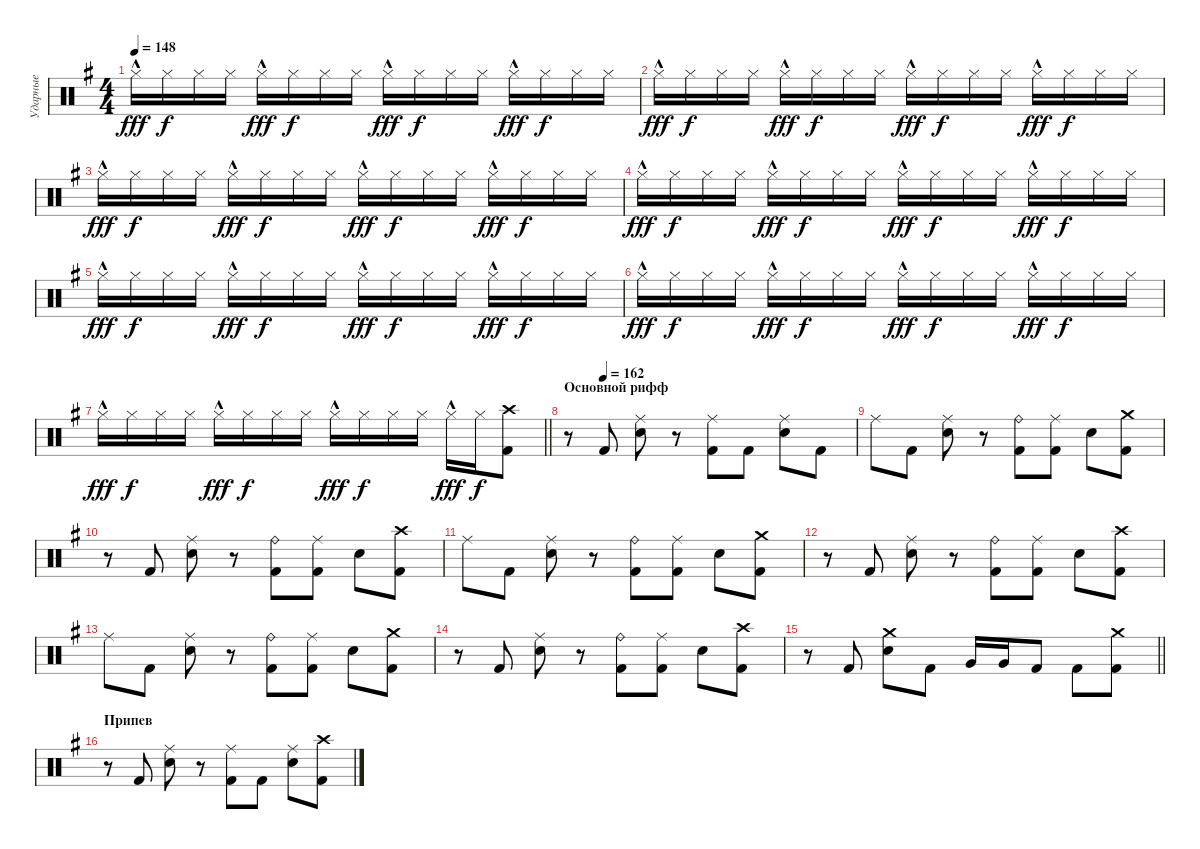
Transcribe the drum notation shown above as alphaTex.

\track ("Ударные" "Ударные") {instrument percussion}
\staff {score}
\articulation defaults
\ts (4 4)
\tempo 148
\clef neutral
\ks eminor "Hi-Hat (closed)"{hac}.16{dy fff} "Hi-Hat (closed)".16{dy f} "Hi-Hat (closed)".16 "Hi-Hat (closed)".16 "Hi-Hat (closed)"{hac}.16{dy fff} "Hi-Hat (closed)".16{dy f} "Hi-Hat (closed)".16 "Hi-Hat (closed)".16 "Hi-Hat (closed)"{hac}.16{dy fff} "Hi-Hat (closed)".16{dy f} "Hi-Hat (closed)".16 "Hi-Hat (closed)".16 "Hi-Hat (closed)"{hac}.16{dy fff} "Hi-Hat (closed)".16{dy f} "Hi-Hat (closed)".16 "Hi-Hat (closed)".16
|
"Hi-Hat (closed)"{hac}.16{dy fff} "Hi-Hat (closed)".16{dy f} "Hi-Hat (closed)".16 "Hi-Hat (closed)".16 "Hi-Hat (closed)"{hac}.16{dy fff} "Hi-Hat (closed)".16{dy f} "Hi-Hat (closed)".16 "Hi-Hat (closed)".16 "Hi-Hat (closed)"{hac}.16{dy fff} "Hi-Hat (closed)".16{dy f} "Hi-Hat (closed)".16 "Hi-Hat (closed)".16 "Hi-Hat (closed)"{hac}.16{dy fff} "Hi-Hat (closed)".16{dy f} "Hi-Hat (closed)".16 "Hi-Hat (closed)".16 |
"Hi-Hat (closed)"{hac}.16{dy fff} "Hi-Hat (closed)".16{dy f} "Hi-Hat (closed)".16 "Hi-Hat (closed)".16 "Hi-Hat (closed)"{hac}.16{dy fff} "Hi-Hat (closed)".16{dy f} "Hi-Hat (closed)".16 "Hi-Hat (closed)".16 "Hi-Hat (closed)"{hac}.16{dy fff} "Hi-Hat (closed)".16{dy f} "Hi-Hat (closed)".16 "Hi-Hat (closed)".16 "Hi-Hat (closed)"{hac}.16{dy fff} "Hi-Hat (closed)".16{dy f} "Hi-Hat (closed)".16 "Hi-Hat (closed)".16 |
"Hi-Hat (closed)"{hac}.16{dy fff} "Hi-Hat (closed)".16{dy f} "Hi-Hat (closed)".16 "Hi-Hat (closed)".16 "Hi-Hat (closed)"{hac}.16{dy fff} "Hi-Hat (closed)".16{dy f} "Hi-Hat (closed)".16 "Hi-Hat (closed)".16 "Hi-Hat (closed)"{hac}.16{dy fff} "Hi-Hat (closed)".16{dy f} "Hi-Hat (closed)".16 "Hi-Hat (closed)".16 "Hi-Hat (closed)"{hac}.16{dy fff} "Hi-Hat (closed)".16{dy f} "Hi-Hat (closed)".16 "Hi-Hat (closed)".16 |
"Hi-Hat (closed)"{hac}.16{dy fff} "Hi-Hat (closed)".16{dy f} "Hi-Hat (closed)".16 "Hi-Hat (closed)".16 "Hi-Hat (closed)"{hac}.16{dy fff} "Hi-Hat (closed)".16{dy f} "Hi-Hat (closed)".16 "Hi-Hat (closed)".16 "Hi-Hat (closed)"{hac}.16{dy fff} "Hi-Hat (closed)".16{dy f} "Hi-Hat (closed)".16 "Hi-Hat (closed)".16 "Hi-Hat (closed)"{hac}.16{dy fff} "Hi-Hat (closed)".16{dy f} "Hi-Hat (closed)".16 "Hi-Hat (closed)".16 |
"Hi-Hat (closed)"{hac}.16{dy fff} "Hi-Hat (closed)".16{dy f} "Hi-Hat (closed)".16 "Hi-Hat (closed)".16 "Hi-Hat (closed)"{hac}.16{dy fff} "Hi-Hat (closed)".16{dy f} "Hi-Hat (closed)".16 "Hi-Hat (closed)".16 "Hi-Hat (closed)"{hac}.16{dy fff} "Hi-Hat (closed)".16{dy f} "Hi-Hat (closed)".16 "Hi-Hat (closed)".16 "Hi-Hat (closed)"{hac}.16{dy fff} "Hi-Hat (closed)".16{dy f} "Hi-Hat (closed)".16 "Hi-Hat (closed)".16 |
\barLineRight lightlight "Hi-Hat (closed)"{hac}.16{dy fff} "Hi-Hat (closed)".16{dy f} "Hi-Hat (closed)".16 "Hi-Hat (closed)".16 "Hi-Hat (closed)"{hac}.16{dy fff} "Hi-Hat (closed)".16{dy f} "Hi-Hat (closed)".16 "Hi-Hat (closed)".16 "Hi-Hat (closed)"{hac}.16{dy fff} "Hi-Hat (closed)".16{dy f} "Hi-Hat (closed)".16 "Hi-Hat (closed)".16 "Hi-Hat (closed)"{hac}.16{dy fff} "Hi-Hat (closed)".16{dy f}
("Crash high (hit)" "Kick (hit) 2").8 |
\section ("" "Основной рифф")
\tempo (162 0.125)
r.8 "Kick (hit) 2".8 ("Ride (middle)" "Electric Snare (hit)").8 r.8 ("Ride (middle)" "Kick (hit) 2").8 "Kick (hit) 2".8 ("Ride (middle)" "Electric Snare (hit)").8 "Kick (hit) 2".8 |
"Ride (middle)".8 "Kick (hit) 2".8 ("Ride (middle)" "Electric Snare (hit)").8 r.8 ("Ride (bell)" "Kick (hit) 2").8 ("Ride (middle)" "Kick (hit) 2").8 "Electric Snare (hit)".8 ("Crash medium (hit)" "Kick (hit) 2").8 |
r.8 "Kick (hit) 2".8 ("Ride (middle)" "Electric Snare (hit)").8 r.8 ("Ride (bell)" "Kick (hit) 2").8 ("Ride (middle)" "Kick (hit) 2").8 "Electric Snare (hit)".8 ("Crash high (hit)" "Kick (hit) 2").8 |
"Ride (middle)".8 "Kick (hit) 2".8 ("Ride (middle)" "Electric Snare (hit)").8 r.8 ("Ride (bell)" "Kick (hit) 2").8 ("Ride (middle)" "Kick (hit) 2").8 "Electric Snare (hit)".8 ("Crash medium (hit)" "Kick (hit) 2").8 |
r.8 "Kick (hit) 2".8 ("Ride (middle)" "Electric Snare (hit)").8 r.8 ("Ride (bell)" "Kick (hit) 2").8 ("Ride (middle)" "Kick (hit) 2").8 "Electric Snare (hit)".8 ("Crash high (hit)" "Kick (hit) 2").8 |
"Ride (middle)".8 "Kick (hit) 2".8 ("Ride (middle)" "Electric Snare (hit)").8 r.8 ("Ride (bell)" "Kick (hit) 2").8 ("Ride (middle)" "Kick (hit) 2").8 "Electric Snare (hit)".8 ("Crash medium (hit)" "Kick (hit) 2").8 |
r.8 "Kick (hit) 2".8 ("Ride (middle)" "Electric Snare (hit)").8 r.8 ("Ride (bell)" "Kick (hit) 2").8 ("Ride (middle)" "Kick (hit) 2").8 "Electric Snare (hit)".8 ("Crash high (hit)" "Kick (hit) 2").8 |
\barLineRight lightlight
r.8 "Kick (hit) 2".8 ("Crash medium (hit)" "Electric Snare (hit)").8 "Kick (hit) 2".8 "Very Low Tom (hit)".16 "Very Low Tom (hit)".16 "Kick (hit) 2".8 "Kick (hit) 2".8 ("Crash medium (hit)" "Kick (hit) 2").8 |
\section ("" "Припев")
r.8 "Kick (hit) 2".8 ("Ride (middle)" "Electric Snare (hit)").8 r.8 ("Ride (middle)" "Kick (hit) 2").8 "Kick (hit) 2".8 ("Ride (middle)" "Electric Snare (hit)").8 ("Crash high (hit)" "Kick (hit) 2").8
